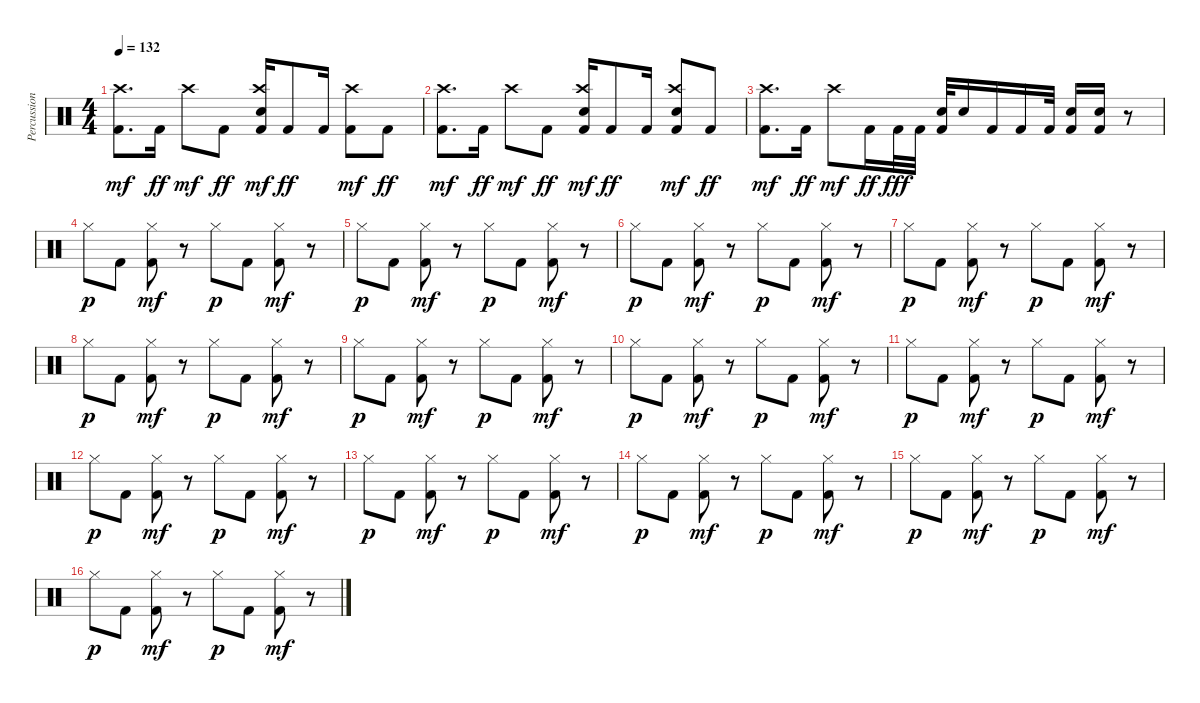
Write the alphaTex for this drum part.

\track ("Percussion" "Percussion") {instrument percussion}
\staff {score}
\articulation defaults
\ts (4 4)
\tempo 132
\clef neutral
\ks c
("Kick (hit) 2" "Crash high (hit)").8{d dy mf} "Kick (hit) 2".16{dy ff} "Crash high (hit)".8{dy mf} "Kick (hit) 2".8{dy ff} ("Kick (hit) 2" "Electric Snare (hit)" "Crash high (hit)").16{dy mf} "Kick (hit) 2".8{dy ff} "Kick (hit) 2".16 ("Kick (hit) 2" "Crash high (hit)").8{dy mf} "Kick (hit) 2".8{dy ff} |
("Kick (hit) 2" "Crash high (hit)").8{d dy mf} "Kick (hit) 2".16{dy ff} "Crash high (hit)".8{dy mf} "Kick (hit) 2".8{dy ff} ("Kick (hit) 2" "Electric Snare (hit)" "Crash high (hit)").16{dy mf} "Kick (hit) 2".8{dy ff} "Kick (hit) 2".16 ("Kick (hit) 2" "Electric Snare (hit)" "Crash high (hit)").8{dy mf} "Kick (hit) 2".8{dy ff} |
("Kick (hit) 2" "Crash high (hit)").8{d dy mf} "Kick (hit) 2".16{dy ff} "Crash high (hit)".8{dy mf} "Kick (hit) 2".16{dy ff} "Kick (hit) 2".32{dy fff} "Kick (hit) 2".32 ("Kick (hit) 2" "Electric Snare (hit)").32 "Electric Snare (hit)".16 "Kick (hit) 2".16 "Kick (hit) 2".16 "Kick (hit) 2".32 ("Kick (hit) 2" "Electric Snare (hit)").16 ("Kick (hit) 2" "Electric Snare (hit)").16 r.8 |
"Hi-Hat (closed)".8{dy p} "Kick (hit) 2".8 ("Hi-Hat (closed)" "Kick (hit) 2").8{dy mf} r.8 "Hi-Hat (closed)".8{dy p} "Kick (hit) 2".8 ("Hi-Hat (closed)" "Kick (hit) 2").8{dy mf} r.8 |
"Hi-Hat (closed)".8{dy p} "Kick (hit) 2".8 ("Hi-Hat (closed)" "Kick (hit) 2").8{dy mf} r.8 "Hi-Hat (closed)".8{dy p} "Kick (hit) 2".8 ("Hi-Hat (closed)" "Kick (hit) 2").8{dy mf} r.8 |
"Hi-Hat (closed)".8{dy p} "Kick (hit) 2".8 ("Hi-Hat (closed)" "Kick (hit) 2").8{dy mf} r.8 "Hi-Hat (closed)".8{dy p} "Kick (hit) 2".8 ("Hi-Hat (closed)" "Kick (hit) 2").8{dy mf} r.8 |
"Hi-Hat (closed)".8{dy p} "Kick (hit) 2".8 ("Hi-Hat (closed)" "Kick (hit) 2").8{dy mf} r.8 "Hi-Hat (closed)".8{dy p} "Kick (hit) 2".8 ("Hi-Hat (closed)" "Kick (hit) 2").8{dy mf} r.8 |
"Hi-Hat (closed)".8{dy p} "Kick (hit) 2".8 ("Hi-Hat (closed)" "Kick (hit) 2").8{dy mf} r.8 "Hi-Hat (closed)".8{dy p} "Kick (hit) 2".8 ("Hi-Hat (closed)" "Kick (hit) 2").8{dy mf} r.8 |
"Hi-Hat (closed)".8{dy p} "Kick (hit) 2".8 ("Hi-Hat (closed)" "Kick (hit) 2").8{dy mf} r.8 "Hi-Hat (closed)".8{dy p} "Kick (hit) 2".8 ("Hi-Hat (closed)" "Kick (hit) 2").8{dy mf} r.8 |
"Hi-Hat (closed)".8{dy p} "Kick (hit) 2".8 ("Hi-Hat (closed)" "Kick (hit) 2").8{dy mf} r.8 "Hi-Hat (closed)".8{dy p} "Kick (hit) 2".8 ("Hi-Hat (closed)" "Kick (hit) 2").8{dy mf} r.8 |
"Hi-Hat (closed)".8{dy p} "Kick (hit) 2".8 ("Hi-Hat (closed)" "Kick (hit) 2").8{dy mf} r.8 "Hi-Hat (closed)".8{dy p} "Kick (hit) 2".8 ("Hi-Hat (closed)" "Kick (hit) 2").8{dy mf} r.8 |
"Hi-Hat (closed)".8{dy p} "Kick (hit) 2".8 ("Hi-Hat (closed)" "Kick (hit) 2").8{dy mf} r.8 "Hi-Hat (closed)".8{dy p} "Kick (hit) 2".8 ("Hi-Hat (closed)" "Kick (hit) 2").8{dy mf} r.8 |
"Hi-Hat (closed)".8{dy p} "Kick (hit) 2".8 ("Hi-Hat (closed)" "Kick (hit) 2").8{dy mf} r.8 "Hi-Hat (closed)".8{dy p} "Kick (hit) 2".8 ("Hi-Hat (closed)" "Kick (hit) 2").8{dy mf} r.8 |
"Hi-Hat (closed)".8{dy p} "Kick (hit) 2".8 ("Hi-Hat (closed)" "Kick (hit) 2").8{dy mf} r.8 "Hi-Hat (closed)".8{dy p} "Kick (hit) 2".8 ("Hi-Hat (closed)" "Kick (hit) 2").8{dy mf} r.8 |
"Hi-Hat (closed)".8{dy p} "Kick (hit) 2".8 ("Hi-Hat (closed)" "Kick (hit) 2").8{dy mf} r.8 "Hi-Hat (closed)".8{dy p} "Kick (hit) 2".8 ("Hi-Hat (closed)" "Kick (hit) 2").8{dy mf} r.8 |
"Hi-Hat (closed)".8{dy p} "Kick (hit) 2".8 ("Hi-Hat (closed)" "Kick (hit) 2").8{dy mf} r.8 "Hi-Hat (closed)".8{dy p} "Kick (hit) 2".8 ("Hi-Hat (closed)" "Kick (hit) 2").8{dy mf} r.8
